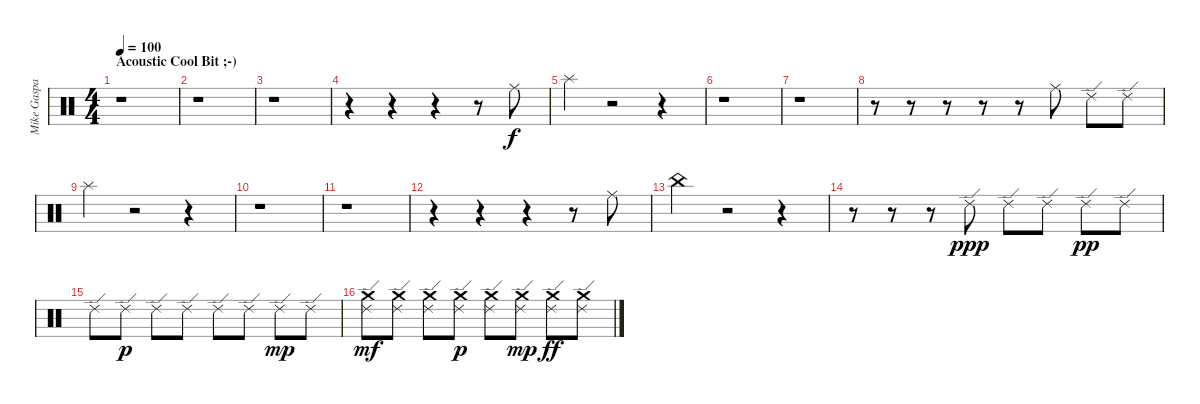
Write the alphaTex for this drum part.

\track ("Mike Gaspar" "Mike Gaspa") {instrument percussion}
\staff {score}
\articulation defaults
\ts (4 4)
\section ("" "Acoustic Cool Bit ;-)")
\tempo 100
\clef neutral
\ks c
r.1{dy f} |
r.1 |
r.1 |
r.4 r.4 r.4 r.8 "Ride (middle)".8 |
"Splash (hit)".4 r.2 r.4 |
r.1 |
r.1 |
r.8 r.8 r.8 r.8 r.8 "Ride (middle)".8 "Ride (edge) 2".8 "Ride (edge) 2".8 |
"Splash (hit)".4 r.2 r.4 |
r.1 |
r.1 |
r.4 r.4 r.4 r.8 "Ride (middle)".8 |
"China (hit)".4 r.2 r.4 |
r.8 r.8 r.8 "Ride (edge) 2".8{dy ppp} "Ride (edge) 2".8 "Ride (edge) 2".8 "Ride (edge) 2".8{dy pp} "Ride (edge) 2".8 |
"Ride (edge) 2".8 "Ride (edge) 2".8{dy p} "Ride (edge) 2".8 "Ride (edge) 2".8 "Ride (edge) 2".8 "Ride (edge) 2".8 "Ride (edge) 2".8{dy mp} "Ride (edge) 2".8 |
("Crash medium (hit)" "Ride (edge) 2").8{dy mf} ("Crash medium (hit)" "Ride (edge) 2").8 ("Crash medium (hit)" "Ride (edge) 2").8 ("Crash medium (hit)" "Ride (edge) 2").8{dy p} ("Crash medium (hit)" "Ride (edge) 2").8 ("Crash medium (hit)" "Ride (edge) 2").8{dy mp} ("Crash medium (hit)" "Ride (edge) 2").8{dy ff} ("Crash medium (hit)" "Ride (edge) 2").8
